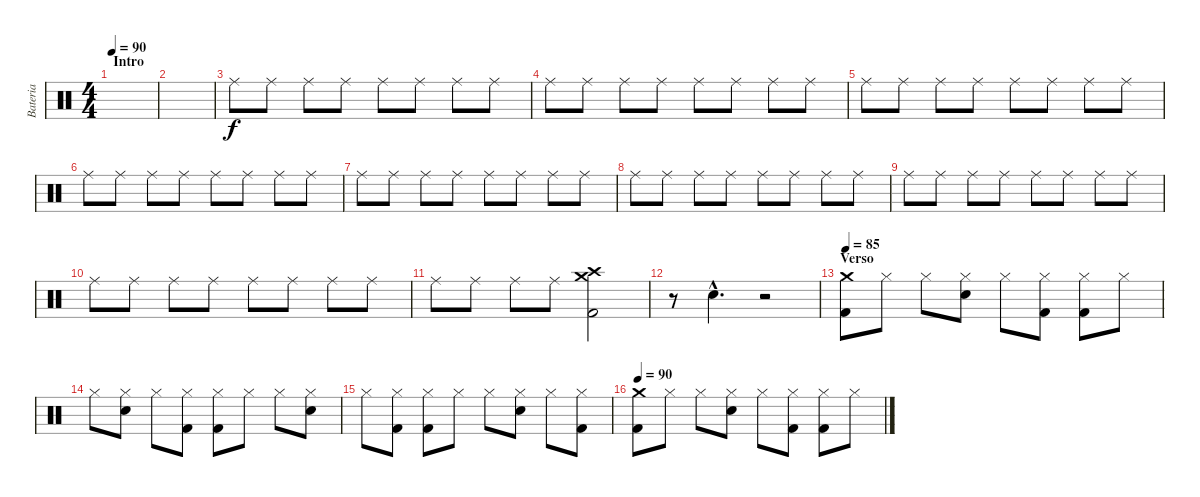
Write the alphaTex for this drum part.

\track ("Bateria" "Bateria") {instrument percussion}
\staff {score}
\articulation defaults
\ts (4 4)
\section ("" "Intro")
\tempo 90
\clef neutral
\ks c
|
|
"Ride (middle)".8{volume 2} "Ride (middle)".8{volume 13} "Ride (middle)".8 "Ride (middle)".8 "Ride (middle)".8 "Ride (middle)".8 "Ride (middle)".8 "Ride (middle)".8 |
"Ride (middle)".8 "Ride (middle)".8 "Ride (middle)".8 "Ride (middle)".8 "Ride (middle)".8 "Ride (middle)".8 "Ride (middle)".8 "Ride (middle)".8 |
"Ride (middle)".8 "Ride (middle)".8 "Ride (middle)".8 "Ride (middle)".8 "Ride (middle)".8 "Ride (middle)".8 "Ride (middle)".8 "Ride (middle)".8 |
"Ride (middle)".8 "Ride (middle)".8 "Ride (middle)".8 "Ride (middle)".8 "Ride (middle)".8 "Ride (middle)".8 "Ride (middle)".8 "Ride (middle)".8 |
"Ride (middle)".8 "Ride (middle)".8 "Ride (middle)".8 "Ride (middle)".8 "Ride (middle)".8 "Ride (middle)".8 "Ride (middle)".8 "Ride (middle)".8 |
"Ride (middle)".8 "Ride (middle)".8 "Ride (middle)".8 "Ride (middle)".8 "Ride (middle)".8 "Ride (middle)".8 "Ride (middle)".8 "Ride (middle)".8 |
"Ride (middle)".8 "Ride (middle)".8 "Ride (middle)".8 "Ride (middle)".8 "Ride (middle)".8 "Ride (middle)".8 "Ride (middle)".8 "Ride (middle)".8 |
"Ride (middle)".8 "Ride (middle)".8 "Ride (middle)".8 "Ride (middle)".8 "Ride (middle)".8 "Ride (middle)".8 "Ride (middle)".8 "Ride (middle)".8 |
"Ride (middle)".8 "Ride (middle)".8 "Ride (middle)".8 "Ride (middle)".8 ("Crash medium (hit)" "Crash high (hit)" "Kick (hit) 2").2 |
r.8 "Snare (hit) 2"{hac}.4{d} r.2 |
\section ("" "Verso")
\tempo 85
("Crash medium (hit)" "Kick (hit) 2").8 "Hi-Hat (closed)".8 "Hi-Hat (closed)".8 ("Hi-Hat (closed)" "Snare (hit) 2").8 "Hi-Hat (closed)".8 ("Hi-Hat (closed)" "Kick (hit) 2").8 ("Hi-Hat (closed)" "Kick (hit) 2").8 "Hi-Hat (closed)".8 |
"Hi-Hat (closed)".8 ("Hi-Hat (closed)" "Snare (hit) 2").8 "Hi-Hat (closed)".8 ("Hi-Hat (closed)" "Kick (hit) 2").8 ("Hi-Hat (closed)" "Kick (hit) 2").8 "Hi-Hat (closed)".8 "Hi-Hat (closed)".8 ("Hi-Hat (closed)" "Snare (hit) 2").8 |
"Hi-Hat (closed)".8 ("Hi-Hat (closed)" "Kick (hit) 2").8 ("Hi-Hat (closed)" "Kick (hit) 2").8 "Hi-Hat (closed)".8 "Hi-Hat (closed)".8 ("Hi-Hat (closed)" "Snare (hit) 2").8 "Hi-Hat (closed)".8 ("Hi-Hat (closed)" "Kick (hit) 2").8 |
\tempo 90
("Crash medium (hit)" "Kick (hit) 2").8 "Hi-Hat (closed)".8 "Hi-Hat (closed)".8 ("Hi-Hat (closed)" "Snare (hit) 2").8 "Hi-Hat (closed)".8 ("Hi-Hat (closed)" "Kick (hit) 2").8 ("Hi-Hat (closed)" "Kick (hit) 2").8 "Hi-Hat (closed)".8
